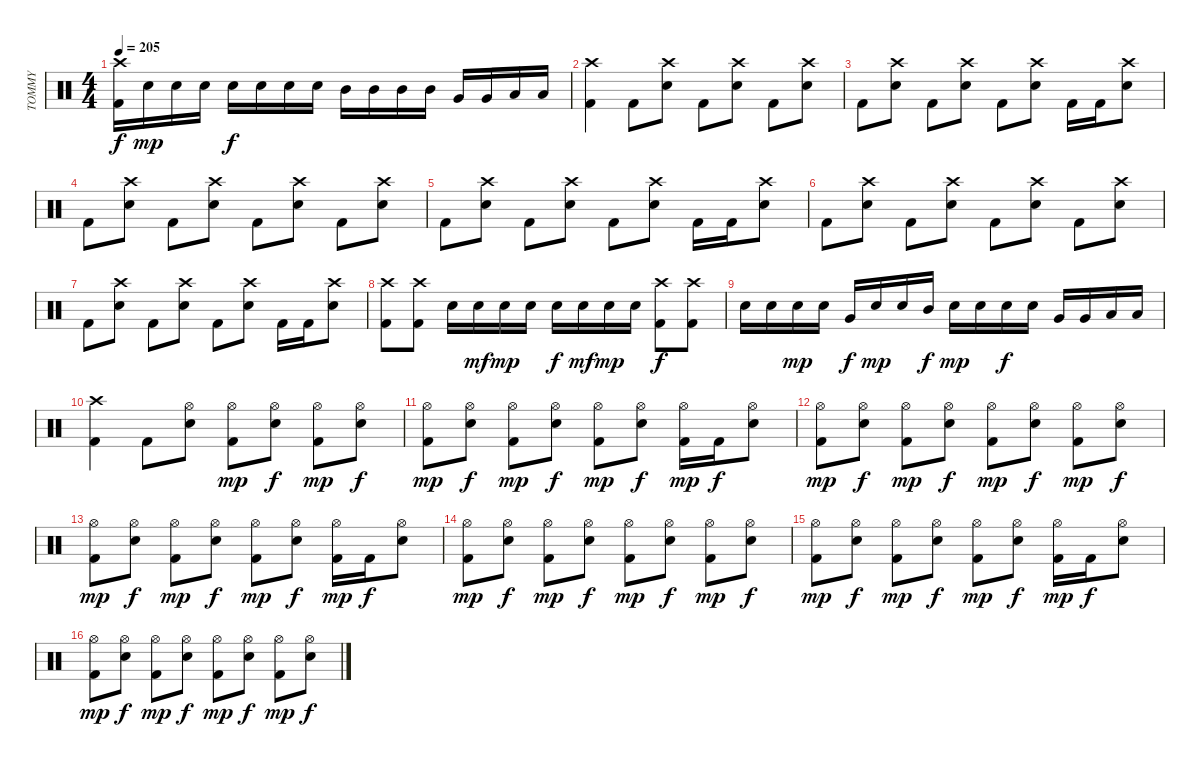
\track ("TOMMY" "TOMMY") {instrument percussion}
\staff {score}
\articulation defaults
\ts (4 4)
\tempo 205
\clef neutral
\ks c
("Kick (hit) 2" "Crash high (hit)").16{dy f} "Snare (hit) 2".16{dy mp} "Snare (hit) 2".16 "Snare (hit) 2".16 "Snare (hit) 2".16{dy f} "Snare (hit) 2".16 "Snare (hit) 2".16 "Snare (hit) 2".16 "Mid Tom (hit)".16 "Mid Tom (hit)".16 "Mid Tom (hit)".16 "Mid Tom (hit)".16 "Very Low Tom (hit)".16 "Very Low Tom (hit)".16 "Low Floor Tom (hit)".16 "Low Floor Tom (hit)".16 |
("Kick (hit) 2" "Crash high (hit)").4 "Kick (hit) 2".8 ("Snare (hit) 2" "Crash high (hit)").8 "Kick (hit) 2".8 ("Snare (hit) 2" "Crash high (hit)").8 "Kick (hit) 2".8 ("Snare (hit) 2" "Crash high (hit)").8 |
"Kick (hit) 2".8 ("Snare (hit) 2" "Crash high (hit)").8 "Kick (hit) 2".8 ("Snare (hit) 2" "Crash high (hit)").8 "Kick (hit) 2".8 ("Snare (hit) 2" "Crash high (hit)").8 "Kick (hit) 2".16 "Kick (hit) 2".16 ("Snare (hit) 2" "Crash high (hit)").8 |
"Kick (hit) 2".8 ("Snare (hit) 2" "Crash high (hit)").8 "Kick (hit) 2".8 ("Snare (hit) 2" "Crash high (hit)").8 "Kick (hit) 2".8 ("Snare (hit) 2" "Crash high (hit)").8 "Kick (hit) 2".8 ("Snare (hit) 2" "Crash high (hit)").8 |
"Kick (hit) 2".8 ("Snare (hit) 2" "Crash high (hit)").8 "Kick (hit) 2".8 ("Snare (hit) 2" "Crash high (hit)").8 "Kick (hit) 2".8 ("Snare (hit) 2" "Crash high (hit)").8 "Kick (hit) 2".16 "Kick (hit) 2".16 ("Snare (hit) 2" "Crash high (hit)").8 |
"Kick (hit) 2".8 ("Snare (hit) 2" "Crash high (hit)").8 "Kick (hit) 2".8 ("Snare (hit) 2" "Crash high (hit)").8 "Kick (hit) 2".8 ("Snare (hit) 2" "Crash high (hit)").8 "Kick (hit) 2".8 ("Snare (hit) 2" "Crash high (hit)").8 |
"Kick (hit) 2".8 ("Snare (hit) 2" "Crash high (hit)").8 "Kick (hit) 2".8 ("Snare (hit) 2" "Crash high (hit)").8 "Kick (hit) 2".8 ("Snare (hit) 2" "Crash high (hit)").8 "Kick (hit) 2".16 "Kick (hit) 2".16 ("Snare (hit) 2" "Crash high (hit)").8 |
("Kick (hit) 2" "Crash high (hit)").8 ("Kick (hit) 2" "Crash high (hit)").8 "Snare (hit) 2".16 "Snare (hit) 2".16{dy mf} "Snare (hit) 2".16{dy mp} "Snare (hit) 2".16 "Snare (hit) 2".16{dy f} "Snare (hit) 2".16{dy mf} "Snare (hit) 2".16{dy mp} "Snare (hit) 2".16 ("Kick (hit) 2" "Crash high (hit)").8{dy f} ("Kick (hit) 2" "Crash high (hit)").8 |
"Snare (hit) 2".16 "Snare (hit) 2".16 "Snare (hit) 2".16{dy mp} "Snare (hit) 2".16 "Very Low Tom (hit)".16{dy f} "Snare (hit) 2".16{dy mp} "Snare (hit) 2".16 "Mid Tom (hit)".16{dy f} "Snare (hit) 2".16{dy mp} "Snare (hit) 2".16 "Snare (hit) 2".16{dy f} "Snare (hit) 2".16 "Very Low Tom (hit)".16 "Very Low Tom (hit)".16 "Low Floor Tom (hit)".16 "Low Floor Tom (hit)".16 |
("Kick (hit) 2" "Crash high (hit)").4 "Kick (hit) 2".8 ("Snare (hit) 2" "Hi-Hat (open)").8 ("Kick (hit) 2" "Hi-Hat (open)").8{dy mp} ("Snare (hit) 2" "Hi-Hat (open)").8{dy f} ("Kick (hit) 2" "Hi-Hat (open)").8{dy mp} ("Snare (hit) 2" "Hi-Hat (open)").8{dy f} |
("Kick (hit) 2" "Hi-Hat (open)").8{dy mp} ("Snare (hit) 2" "Hi-Hat (open)").8{dy f} ("Kick (hit) 2" "Hi-Hat (open)").8{dy mp} ("Snare (hit) 2" "Hi-Hat (open)").8{dy f} ("Kick (hit) 2" "Hi-Hat (open)").8{dy mp} ("Snare (hit) 2" "Hi-Hat (open)").8{dy f} ("Kick (hit) 2" "Hi-Hat (open)").16{dy mp} "Kick (hit) 2".16{dy f} ("Snare (hit) 2" "Hi-Hat (open)").8 |
("Kick (hit) 2" "Hi-Hat (open)").8{dy mp} ("Snare (hit) 2" "Hi-Hat (open)").8{dy f} ("Kick (hit) 2" "Hi-Hat (open)").8{dy mp} ("Snare (hit) 2" "Hi-Hat (open)").8{dy f} ("Kick (hit) 2" "Hi-Hat (open)").8{dy mp} ("Snare (hit) 2" "Hi-Hat (open)").8{dy f} ("Kick (hit) 2" "Hi-Hat (open)").8{dy mp} ("Snare (hit) 2" "Hi-Hat (open)").8{dy f} |
("Kick (hit) 2" "Hi-Hat (open)").8{dy mp} ("Snare (hit) 2" "Hi-Hat (open)").8{dy f} ("Kick (hit) 2" "Hi-Hat (open)").8{dy mp} ("Snare (hit) 2" "Hi-Hat (open)").8{dy f} ("Kick (hit) 2" "Hi-Hat (open)").8{dy mp} ("Snare (hit) 2" "Hi-Hat (open)").8{dy f} ("Kick (hit) 2" "Hi-Hat (open)").16{dy mp} "Kick (hit) 2".16{dy f} ("Snare (hit) 2" "Hi-Hat (open)").8 |
("Kick (hit) 2" "Hi-Hat (open)").8{dy mp} ("Snare (hit) 2" "Hi-Hat (open)").8{dy f} ("Kick (hit) 2" "Hi-Hat (open)").8{dy mp} ("Snare (hit) 2" "Hi-Hat (open)").8{dy f} ("Kick (hit) 2" "Hi-Hat (open)").8{dy mp} ("Snare (hit) 2" "Hi-Hat (open)").8{dy f} ("Kick (hit) 2" "Hi-Hat (open)").8{dy mp} ("Snare (hit) 2" "Hi-Hat (open)").8{dy f} |
("Kick (hit) 2" "Hi-Hat (open)").8{dy mp} ("Snare (hit) 2" "Hi-Hat (open)").8{dy f} ("Kick (hit) 2" "Hi-Hat (open)").8{dy mp} ("Snare (hit) 2" "Hi-Hat (open)").8{dy f} ("Kick (hit) 2" "Hi-Hat (open)").8{dy mp} ("Snare (hit) 2" "Hi-Hat (open)").8{dy f} ("Kick (hit) 2" "Hi-Hat (open)").16{dy mp} "Kick (hit) 2".16{dy f} ("Snare (hit) 2" "Hi-Hat (open)").8 |
("Kick (hit) 2" "Hi-Hat (open)").8{dy mp} ("Snare (hit) 2" "Hi-Hat (open)").8{dy f} ("Kick (hit) 2" "Hi-Hat (open)").8{dy mp} ("Snare (hit) 2" "Hi-Hat (open)").8{dy f} ("Kick (hit) 2" "Hi-Hat (open)").8{dy mp} ("Snare (hit) 2" "Hi-Hat (open)").8{dy f} ("Kick (hit) 2" "Hi-Hat (open)").8{dy mp} ("Snare (hit) 2" "Hi-Hat (open)").8{dy f}
